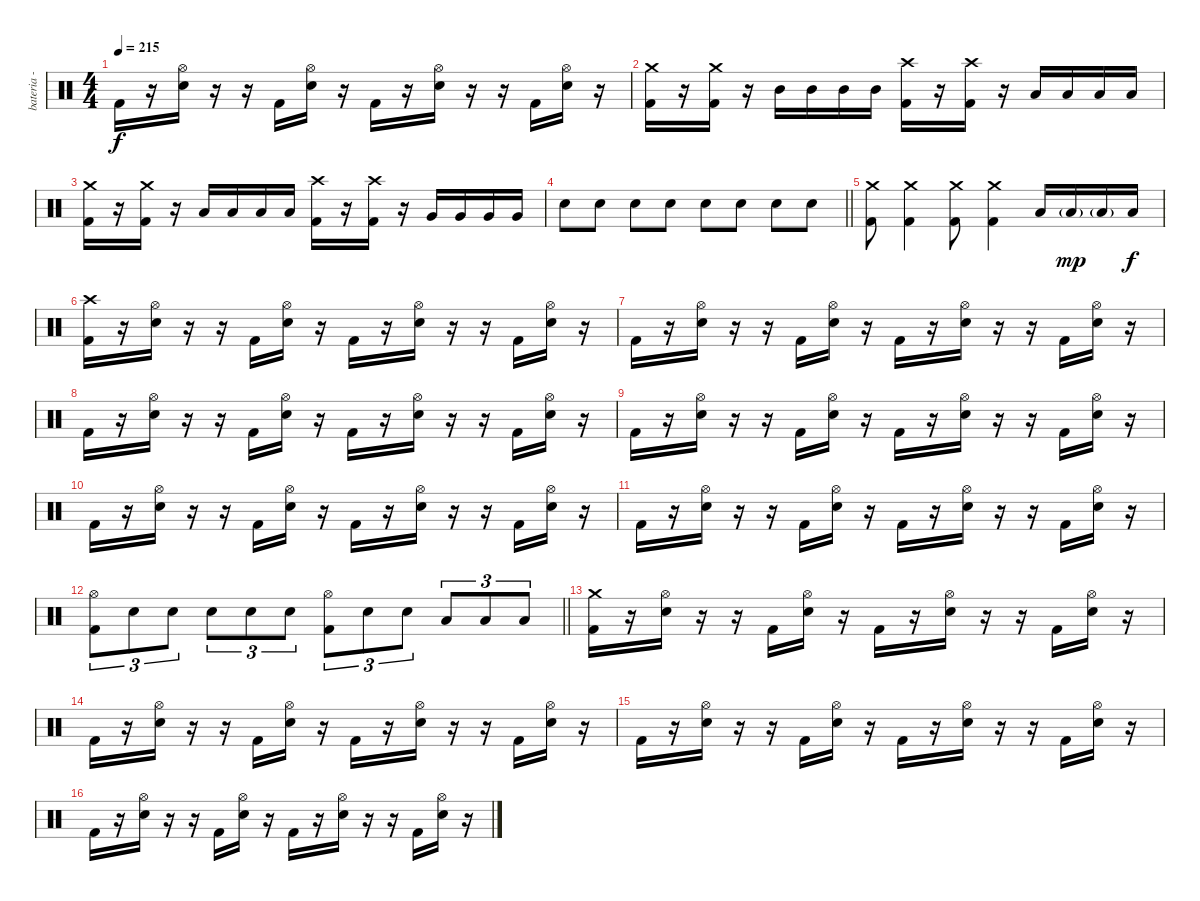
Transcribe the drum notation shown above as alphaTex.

\track ("bateria - drums" "bateria - ") {instrument percussion}
\staff {score}
\articulation defaults
\ts (4 4)
\tempo 215
\clef neutral
\ks c "Kick (hit) 2".16{dy f}
r.16 ("Hi-Hat (open)" "Electric Snare (hit)").16 r.16 r.16 "Kick (hit) 2".16 ("Hi-Hat (open)" "Electric Snare (hit)").16 r.16 "Kick (hit) 2".16 r.16 ("Hi-Hat (open)" "Electric Snare (hit)").16 r.16 r.16 "Kick (hit) 2".16 ("Hi-Hat (open)" "Electric Snare (hit)").16 r.16 |
("Crash medium (hit)" "Kick (hit) 2").16 r.16 ("Crash medium (hit)" "Kick (hit) 2").16 r.16 "Mid Tom (hit)".16 "Mid Tom (hit)".16 "Mid Tom (hit)".16 "Mid Tom (hit)".16 ("Crash high (hit)" "Kick (hit) 2").16 r.16 ("Crash high (hit)" "Kick (hit) 2").16 r.16 "Low Floor Tom (hit)".16 "Low Floor Tom (hit)".16 "Low Floor Tom (hit)".16 "Low Floor Tom (hit)".16 |
("Crash medium (hit)" "Kick (hit) 2").16 r.16 ("Crash medium (hit)" "Kick (hit) 2").16 r.16 "Low Tom (hit)".16 "Low Tom (hit)".16 "Low Tom (hit)".16 "Low Tom (hit)".16 ("Crash high (hit)" "Kick (hit) 2").16 r.16 ("Crash high (hit)" "Kick (hit) 2").16 r.16 "Very Low Tom (hit)".16 "Very Low Tom (hit)".16 "Very Low Tom (hit)".16 "Very Low Tom (hit)".16 |
\barLineRight lightlight "Electric Snare (hit)".8 "Electric Snare (hit)".8 "Electric Snare (hit)".8 "Electric Snare (hit)".8 "Electric Snare (hit)".8 "Electric Snare (hit)".8 "Electric Snare (hit)".8 "Electric Snare (hit)".8
|
("Crash medium (hit)" "Kick (hit) 2").8 ("Crash medium (hit)" "Kick (hit) 2").4 ("Crash medium (hit)" "Kick (hit) 2").8 ("Crash medium (hit)" "Kick (hit) 2").4 "Low Floor Tom (hit)".16 "Low Floor Tom (hit)"{g}.16{dy mp} "Low Floor Tom (hit)"{g}.16 "Low Floor Tom (hit)".16{dy f} |
("Crash high (hit)" "Kick (hit) 2").16 r.16 ("Hi-Hat (open)" "Electric Snare (hit)").16 r.16 r.16 "Kick (hit) 2".16 ("Hi-Hat (open)" "Electric Snare (hit)").16 r.16 "Kick (hit) 2".16 r.16 ("Hi-Hat (open)" "Electric Snare (hit)").16 r.16 r.16 "Kick (hit) 2".16 ("Hi-Hat (open)" "Electric Snare (hit)").16 r.16 |
"Kick (hit) 2".16 r.16 ("Hi-Hat (open)" "Electric Snare (hit)").16 r.16 r.16 "Kick (hit) 2".16 ("Hi-Hat (open)" "Electric Snare (hit)").16 r.16 "Kick (hit) 2".16 r.16 ("Hi-Hat (open)" "Electric Snare (hit)").16 r.16 r.16 "Kick (hit) 2".16 ("Hi-Hat (open)" "Electric Snare (hit)").16 r.16 |
"Kick (hit) 2".16 r.16 ("Hi-Hat (open)" "Electric Snare (hit)").16 r.16 r.16 "Kick (hit) 2".16 ("Hi-Hat (open)" "Electric Snare (hit)").16 r.16 "Kick (hit) 2".16 r.16 ("Hi-Hat (open)" "Electric Snare (hit)").16 r.16 r.16 "Kick (hit) 2".16 ("Hi-Hat (open)" "Electric Snare (hit)").16 r.16 |
"Kick (hit) 2".16 r.16 ("Hi-Hat (open)" "Electric Snare (hit)").16 r.16 r.16 "Kick (hit) 2".16 ("Hi-Hat (open)" "Electric Snare (hit)").16 r.16 "Kick (hit) 2".16 r.16 ("Hi-Hat (open)" "Electric Snare (hit)").16 r.16 r.16 "Kick (hit) 2".16 ("Hi-Hat (open)" "Electric Snare (hit)").16 r.16 |
"Kick (hit) 2".16 r.16 ("Hi-Hat (open)" "Electric Snare (hit)").16 r.16 r.16 "Kick (hit) 2".16 ("Hi-Hat (open)" "Electric Snare (hit)").16 r.16 "Kick (hit) 2".16 r.16 ("Hi-Hat (open)" "Electric Snare (hit)").16 r.16 r.16 "Kick (hit) 2".16 ("Hi-Hat (open)" "Electric Snare (hit)").16 r.16 |
"Kick (hit) 2".16 r.16 ("Hi-Hat (open)" "Electric Snare (hit)").16 r.16 r.16 "Kick (hit) 2".16 ("Hi-Hat (open)" "Electric Snare (hit)").16 r.16 "Kick (hit) 2".16 r.16 ("Hi-Hat (open)" "Electric Snare (hit)").16 r.16 r.16 "Kick (hit) 2".16 ("Hi-Hat (open)" "Electric Snare (hit)").16 r.16 |
\barLineRight lightlight
("Hi-Hat (open)" "Kick (hit) 2").8{tu (3 2)} "Electric Snare (hit)".8{tu (3 2)} "Electric Snare (hit)".8{tu (3 2)} "Electric Snare (hit)".8{tu (3 2)} "Electric Snare (hit)".8{tu (3 2)} "Electric Snare (hit)".8{tu (3 2)} ("Hi-Hat (open)" "Kick (hit) 2").8{tu (3 2)} "Electric Snare (hit)".8{tu (3 2)} "Electric Snare (hit)".8{tu (3 2)} "Low Floor Tom (hit)".8{tu (3 2)} "Low Floor Tom (hit)".8{tu (3 2)} "Low Floor Tom (hit)".8{tu (3 2)} |
("Crash medium (hit)" "Kick (hit) 2").16 r.16 ("Hi-Hat (open)" "Electric Snare (hit)").16 r.16 r.16 "Kick (hit) 2".16 ("Hi-Hat (open)" "Electric Snare (hit)").16 r.16 "Kick (hit) 2".16 r.16 ("Hi-Hat (open)" "Electric Snare (hit)").16 r.16 r.16 "Kick (hit) 2".16 ("Hi-Hat (open)" "Electric Snare (hit)").16 r.16 |
"Kick (hit) 2".16 r.16 ("Hi-Hat (open)" "Electric Snare (hit)").16 r.16 r.16 "Kick (hit) 2".16 ("Hi-Hat (open)" "Electric Snare (hit)").16 r.16 "Kick (hit) 2".16 r.16 ("Hi-Hat (open)" "Electric Snare (hit)").16 r.16 r.16 "Kick (hit) 2".16 ("Hi-Hat (open)" "Electric Snare (hit)").16 r.16 |
"Kick (hit) 2".16 r.16 ("Hi-Hat (open)" "Electric Snare (hit)").16 r.16 r.16 "Kick (hit) 2".16 ("Hi-Hat (open)" "Electric Snare (hit)").16 r.16 "Kick (hit) 2".16 r.16 ("Hi-Hat (open)" "Electric Snare (hit)").16 r.16 r.16 "Kick (hit) 2".16 ("Hi-Hat (open)" "Electric Snare (hit)").16 r.16 |
"Kick (hit) 2".16 r.16 ("Hi-Hat (open)" "Electric Snare (hit)").16 r.16 r.16 "Kick (hit) 2".16 ("Hi-Hat (open)" "Electric Snare (hit)").16 r.16 "Kick (hit) 2".16 r.16 ("Hi-Hat (open)" "Electric Snare (hit)").16 r.16 r.16 "Kick (hit) 2".16 ("Hi-Hat (open)" "Electric Snare (hit)").16 r.16
